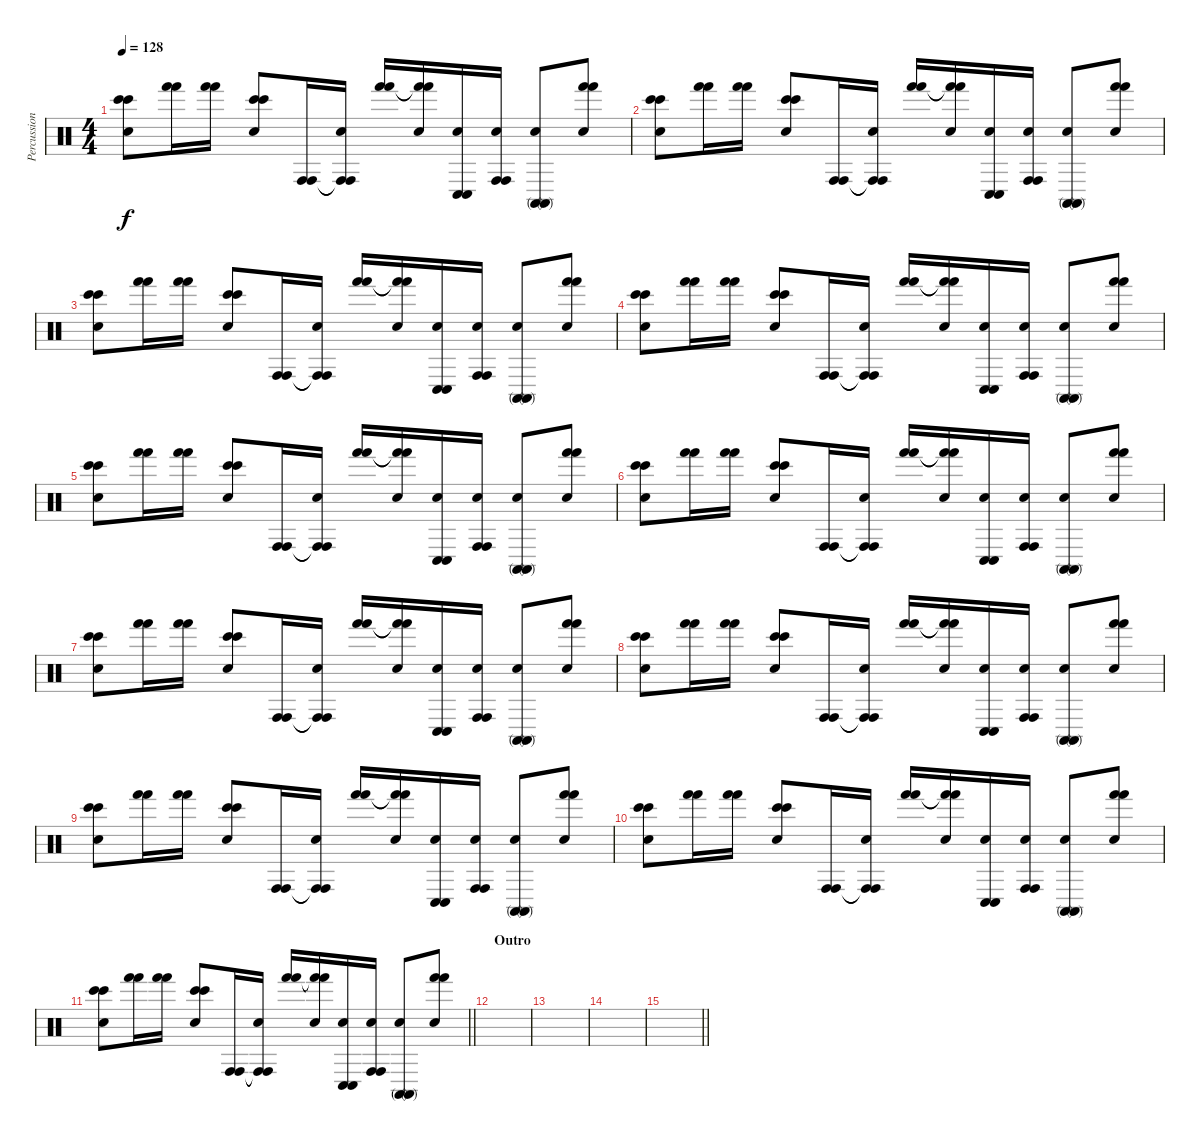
\track ("Percussioni" "Percussion") {instrument percussion}
\staff {score}
\articulation defaults
\ts (4 4)
\tempo 128
\clef neutral
\ks c
("Bongo High (hit)" "Bongo High (hit)" "Hand Clap (hit)").8{dy f} ("Hand (hit)" "Hand (hit)").16 ("Hand (hit)" "Hand (hit)").16 ("Bongo High (hit)" "Bongo High (hit)" "Hand Clap (hit)").8 ("Conga high (hit)" "Conga high (hit)").16 ("Conga high (hit)"{t} "Conga high (hit)"{t} "Hand Clap (hit)").16 ("Hand (hit)" "Hand (hit)").16 ("Hand (hit)"{t} "Hand (hit)"{t} "Hand Clap (hit)").16 ("Conga low (hit)" "Conga low (hit)" "Hand Clap (hit)").16 ("Conga high (hit)" "Conga high (hit)" "Hand Clap (hit)").16 ("Conga high (mute)" "Conga high (mute)" "Hand Clap (hit)").8 ("Hand (hit)" "Hand (hit)" "Hand Clap (hit)").8 |
("Bongo High (hit)" "Bongo High (hit)" "Hand Clap (hit)").8 ("Hand (hit)" "Hand (hit)").16 ("Hand (hit)" "Hand (hit)").16 ("Bongo High (hit)" "Bongo High (hit)" "Hand Clap (hit)").8 ("Conga high (hit)" "Conga high (hit)").16 ("Conga high (hit)"{t} "Conga high (hit)"{t} "Hand Clap (hit)").16 ("Hand (hit)" "Hand (hit)").16 ("Hand (hit)"{t} "Hand (hit)"{t} "Hand Clap (hit)").16 ("Conga low (hit)" "Conga low (hit)" "Hand Clap (hit)").16 ("Conga high (hit)" "Conga high (hit)" "Hand Clap (hit)").16 ("Conga high (mute)" "Conga high (mute)" "Hand Clap (hit)").8 ("Hand (hit)" "Hand (hit)" "Hand Clap (hit)").8 |
("Bongo High (hit)" "Bongo High (hit)" "Hand Clap (hit)").8 ("Hand (hit)" "Hand (hit)").16 ("Hand (hit)" "Hand (hit)").16 ("Bongo High (hit)" "Bongo High (hit)" "Hand Clap (hit)").8 ("Conga high (hit)" "Conga high (hit)").16 ("Conga high (hit)"{t} "Conga high (hit)"{t} "Hand Clap (hit)").16 ("Hand (hit)" "Hand (hit)").16 ("Hand (hit)"{t} "Hand (hit)"{t} "Hand Clap (hit)").16 ("Conga low (hit)" "Conga low (hit)" "Hand Clap (hit)").16 ("Conga high (hit)" "Conga high (hit)" "Hand Clap (hit)").16 ("Conga high (mute)" "Conga high (mute)" "Hand Clap (hit)").8 ("Hand (hit)" "Hand (hit)" "Hand Clap (hit)").8 |
("Bongo High (hit)" "Bongo High (hit)" "Hand Clap (hit)").8 ("Hand (hit)" "Hand (hit)").16 ("Hand (hit)" "Hand (hit)").16 ("Bongo High (hit)" "Bongo High (hit)" "Hand Clap (hit)").8 ("Conga high (hit)" "Conga high (hit)").16 ("Conga high (hit)"{t} "Conga high (hit)"{t} "Hand Clap (hit)").16 ("Hand (hit)" "Hand (hit)").16 ("Hand (hit)"{t} "Hand (hit)"{t} "Hand Clap (hit)").16 ("Conga low (hit)" "Conga low (hit)" "Hand Clap (hit)").16 ("Conga high (hit)" "Conga high (hit)" "Hand Clap (hit)").16 ("Conga high (mute)" "Conga high (mute)" "Hand Clap (hit)").8 ("Hand (hit)" "Hand (hit)" "Hand Clap (hit)").8 |
("Bongo High (hit)" "Bongo High (hit)" "Hand Clap (hit)").8 ("Hand (hit)" "Hand (hit)").16 ("Hand (hit)" "Hand (hit)").16 ("Bongo High (hit)" "Bongo High (hit)" "Hand Clap (hit)").8 ("Conga high (hit)" "Conga high (hit)").16 ("Conga high (hit)"{t} "Conga high (hit)"{t} "Hand Clap (hit)").16 ("Hand (hit)" "Hand (hit)").16 ("Hand (hit)"{t} "Hand (hit)"{t} "Hand Clap (hit)").16 ("Conga low (hit)" "Conga low (hit)" "Hand Clap (hit)").16 ("Conga high (hit)" "Conga high (hit)" "Hand Clap (hit)").16 ("Conga high (mute)" "Conga high (mute)" "Hand Clap (hit)").8 ("Hand (hit)" "Hand (hit)" "Hand Clap (hit)").8 |
("Bongo High (hit)" "Bongo High (hit)" "Hand Clap (hit)").8 ("Hand (hit)" "Hand (hit)").16 ("Hand (hit)" "Hand (hit)").16 ("Bongo High (hit)" "Bongo High (hit)" "Hand Clap (hit)").8 ("Conga high (hit)" "Conga high (hit)").16 ("Conga high (hit)"{t} "Conga high (hit)"{t} "Hand Clap (hit)").16 ("Hand (hit)" "Hand (hit)").16 ("Hand (hit)"{t} "Hand (hit)"{t} "Hand Clap (hit)").16 ("Conga low (hit)" "Conga low (hit)" "Hand Clap (hit)").16 ("Conga high (hit)" "Conga high (hit)" "Hand Clap (hit)").16 ("Conga high (mute)" "Conga high (mute)" "Hand Clap (hit)").8 ("Hand (hit)" "Hand (hit)" "Hand Clap (hit)").8 |
("Bongo High (hit)" "Bongo High (hit)" "Hand Clap (hit)").8 ("Hand (hit)" "Hand (hit)").16 ("Hand (hit)" "Hand (hit)").16 ("Bongo High (hit)" "Bongo High (hit)" "Hand Clap (hit)").8 ("Conga high (hit)" "Conga high (hit)").16 ("Conga high (hit)"{t} "Conga high (hit)"{t} "Hand Clap (hit)").16 ("Hand (hit)" "Hand (hit)").16 ("Hand (hit)"{t} "Hand (hit)"{t} "Hand Clap (hit)").16 ("Conga low (hit)" "Conga low (hit)" "Hand Clap (hit)").16 ("Conga high (hit)" "Conga high (hit)" "Hand Clap (hit)").16 ("Conga high (mute)" "Conga high (mute)" "Hand Clap (hit)").8 ("Hand (hit)" "Hand (hit)" "Hand Clap (hit)").8 |
("Bongo High (hit)" "Bongo High (hit)" "Hand Clap (hit)").8 ("Hand (hit)" "Hand (hit)").16 ("Hand (hit)" "Hand (hit)").16 ("Bongo High (hit)" "Bongo High (hit)" "Hand Clap (hit)").8 ("Conga high (hit)" "Conga high (hit)").16 ("Conga high (hit)"{t} "Conga high (hit)"{t} "Hand Clap (hit)").16 ("Hand (hit)" "Hand (hit)").16 ("Hand (hit)"{t} "Hand (hit)"{t} "Hand Clap (hit)").16 ("Conga low (hit)" "Conga low (hit)" "Hand Clap (hit)").16 ("Conga high (hit)" "Conga high (hit)" "Hand Clap (hit)").16 ("Conga high (mute)" "Conga high (mute)" "Hand Clap (hit)").8 ("Hand (hit)" "Hand (hit)" "Hand Clap (hit)").8 |
("Bongo High (hit)" "Bongo High (hit)" "Hand Clap (hit)").8 ("Hand (hit)" "Hand (hit)").16 ("Hand (hit)" "Hand (hit)").16 ("Bongo High (hit)" "Bongo High (hit)" "Hand Clap (hit)").8 ("Conga high (hit)" "Conga high (hit)").16 ("Conga high (hit)"{t} "Conga high (hit)"{t} "Hand Clap (hit)").16 ("Hand (hit)" "Hand (hit)").16 ("Hand (hit)"{t} "Hand (hit)"{t} "Hand Clap (hit)").16 ("Conga low (hit)" "Conga low (hit)" "Hand Clap (hit)").16 ("Conga high (hit)" "Conga high (hit)" "Hand Clap (hit)").16 ("Conga high (mute)" "Conga high (mute)" "Hand Clap (hit)").8 ("Hand (hit)" "Hand (hit)" "Hand Clap (hit)").8 |
("Bongo High (hit)" "Bongo High (hit)" "Hand Clap (hit)").8 ("Hand (hit)" "Hand (hit)").16 ("Hand (hit)" "Hand (hit)").16 ("Bongo High (hit)" "Bongo High (hit)" "Hand Clap (hit)").8 ("Conga high (hit)" "Conga high (hit)").16 ("Conga high (hit)"{t} "Conga high (hit)"{t} "Hand Clap (hit)").16 ("Hand (hit)" "Hand (hit)").16 ("Hand (hit)"{t} "Hand (hit)"{t} "Hand Clap (hit)").16 ("Conga low (hit)" "Conga low (hit)" "Hand Clap (hit)").16 ("Conga high (hit)" "Conga high (hit)" "Hand Clap (hit)").16 ("Conga high (mute)" "Conga high (mute)" "Hand Clap (hit)").8 ("Hand (hit)" "Hand (hit)" "Hand Clap (hit)").8 |
\barLineRight lightlight
("Bongo High (hit)" "Bongo High (hit)" "Hand Clap (hit)").8 ("Hand (hit)" "Hand (hit)").16 ("Hand (hit)" "Hand (hit)").16 ("Bongo High (hit)" "Bongo High (hit)" "Hand Clap (hit)").8 ("Conga high (hit)" "Conga high (hit)").16 ("Conga high (hit)"{t} "Conga high (hit)"{t} "Hand Clap (hit)").16 ("Hand (hit)" "Hand (hit)").16 ("Hand (hit)"{t} "Hand (hit)"{t} "Hand Clap (hit)").16 ("Conga low (hit)" "Conga low (hit)" "Hand Clap (hit)").16 ("Conga high (hit)" "Conga high (hit)" "Hand Clap (hit)").16 ("Conga high (mute)" "Conga high (mute)" "Hand Clap (hit)").8 ("Hand (hit)" "Hand (hit)" "Hand Clap (hit)").8 |
\section ("" "Outro")
|
|
|
\barLineRight lightlight
